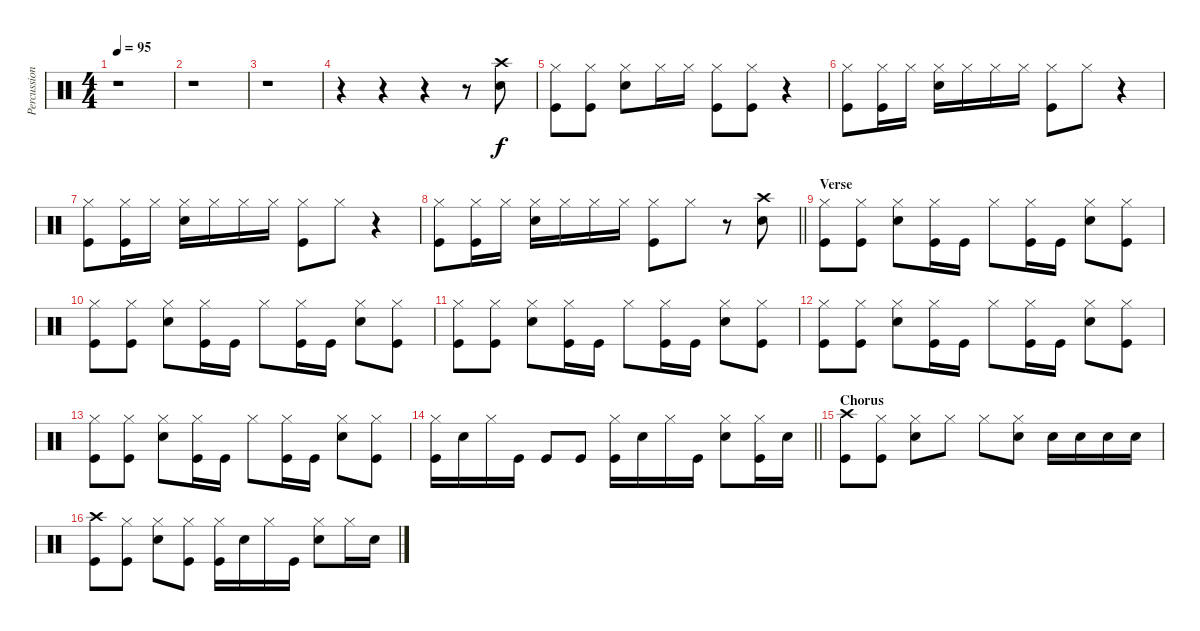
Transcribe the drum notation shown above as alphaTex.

\track ("Percussion" "Percussion") {instrument percussion}
\staff {score}
\articulation defaults
\ts (4 4)
\tempo 95
\clef neutral
\ks c
r.1{dy f} |
r.1 |
r.1 |
r.4 r.4 r.4 r.8 ("Crash high (hit)" "Snare (hit) 2").8 |
("Hi-Hat (closed)" "Kick (hit)").8 ("Hi-Hat (closed)" "Kick (hit)").8 ("Hi-Hat (closed)" "Snare (hit) 2").8 "Hi-Hat (closed)".16 "Hi-Hat (closed)".16 ("Hi-Hat (closed)" "Kick (hit)").8 ("Hi-Hat (closed)" "Kick (hit)").8 r.4 |
("Hi-Hat (closed)" "Kick (hit)").8 ("Hi-Hat (closed)" "Kick (hit)").16 "Hi-Hat (closed)".16 ("Hi-Hat (closed)" "Snare (hit) 2").16 "Hi-Hat (closed)".16 "Hi-Hat (closed)".16 "Hi-Hat (closed)".16 ("Hi-Hat (closed)" "Kick (hit)").8 "Hi-Hat (closed)".8 r.4 |
("Hi-Hat (closed)" "Kick (hit)").8 ("Hi-Hat (closed)" "Kick (hit)").16 "Hi-Hat (closed)".16 ("Hi-Hat (closed)" "Snare (hit) 2").16 "Hi-Hat (closed)".16 "Hi-Hat (closed)".16 "Hi-Hat (closed)".16 ("Hi-Hat (closed)" "Kick (hit)").8 "Hi-Hat (closed)".8 r.4 |
\barLineRight lightlight
("Hi-Hat (closed)" "Kick (hit)").8 ("Hi-Hat (closed)" "Kick (hit)").16 "Hi-Hat (closed)".16 ("Hi-Hat (closed)" "Snare (hit) 2").16 "Hi-Hat (closed)".16 "Hi-Hat (closed)".16 "Hi-Hat (closed)".16 ("Hi-Hat (closed)" "Kick (hit)").8 "Hi-Hat (closed)".8 r.8 ("Crash high (hit)" "Snare (hit) 2").8 |
\section ("" "Verse")
("Hi-Hat (closed)" "Kick (hit)").8 ("Hi-Hat (closed)" "Kick (hit)").8 ("Hi-Hat (closed)" "Snare (hit) 2").8 ("Hi-Hat (closed)" "Kick (hit)").16 "Kick (hit)".16 "Hi-Hat (closed)".8 ("Hi-Hat (closed)" "Kick (hit)").16 "Kick (hit)".16 ("Hi-Hat (closed)" "Snare (hit) 2").8 ("Hi-Hat (closed)" "Kick (hit)").8 |
("Hi-Hat (closed)" "Kick (hit)").8 ("Hi-Hat (closed)" "Kick (hit)").8 ("Hi-Hat (closed)" "Snare (hit) 2").8 ("Hi-Hat (closed)" "Kick (hit)").16 "Kick (hit)".16 "Hi-Hat (closed)".8 ("Hi-Hat (closed)" "Kick (hit)").16 "Kick (hit)".16 ("Hi-Hat (closed)" "Snare (hit) 2").8 ("Hi-Hat (closed)" "Kick (hit)").8 |
("Hi-Hat (closed)" "Kick (hit)").8 ("Hi-Hat (closed)" "Kick (hit)").8 ("Hi-Hat (closed)" "Snare (hit) 2").8 ("Hi-Hat (closed)" "Kick (hit)").16 "Kick (hit)".16 "Hi-Hat (closed)".8 ("Hi-Hat (closed)" "Kick (hit)").16 "Kick (hit)".16 ("Hi-Hat (closed)" "Snare (hit) 2").8 ("Hi-Hat (closed)" "Kick (hit)").8 |
("Hi-Hat (closed)" "Kick (hit)").8 ("Hi-Hat (closed)" "Kick (hit)").8 ("Hi-Hat (closed)" "Snare (hit) 2").8 ("Hi-Hat (closed)" "Kick (hit)").16 "Kick (hit)".16 "Hi-Hat (closed)".8 ("Hi-Hat (closed)" "Kick (hit)").16 "Kick (hit)".16 ("Hi-Hat (closed)" "Snare (hit) 2").8 ("Hi-Hat (closed)" "Kick (hit)").8 |
("Hi-Hat (closed)" "Kick (hit)").8 ("Hi-Hat (closed)" "Kick (hit)").8 ("Hi-Hat (closed)" "Snare (hit) 2").8 ("Hi-Hat (closed)" "Kick (hit)").16 "Kick (hit)".16 "Hi-Hat (closed)".8 ("Hi-Hat (closed)" "Kick (hit)").16 "Kick (hit)".16 ("Hi-Hat (closed)" "Snare (hit) 2").8 ("Hi-Hat (closed)" "Kick (hit)").8 |
\barLineRight lightlight
("Hi-Hat (closed)" "Kick (hit)").16 "Snare (hit) 2".16 "Hi-Hat (closed)".16 "Kick (hit)".16 "Kick (hit)".8 "Kick (hit)".8 ("Hi-Hat (closed)" "Kick (hit)").16 "Snare (hit) 2".16 "Hi-Hat (closed)".16 "Kick (hit)".16 ("Hi-Hat (closed)" "Snare (hit) 2").8 ("Hi-Hat (closed)" "Kick (hit)").16 "Snare (hit) 2".16 |
\section ("" "Chorus")
("Crash high (hit)" "Kick (hit)").8 ("Hi-Hat (closed)" "Kick (hit)").8 ("Hi-Hat (closed)" "Snare (hit) 2").8 "Hi-Hat (closed)".8 "Hi-Hat (closed)".8 ("Hi-Hat (closed)" "Snare (hit) 2").8 "Snare (hit) 2".16 "Snare (hit) 2".16 "Snare (hit) 2".16 "Snare (hit) 2".16 |
("Crash high (hit)" "Kick (hit)").8 ("Hi-Hat (closed)" "Kick (hit)").8 ("Hi-Hat (closed)" "Snare (hit) 2").8 ("Hi-Hat (closed)" "Kick (hit)").8 ("Hi-Hat (closed)" "Kick (hit)").16 "Snare (hit) 2".16 "Hi-Hat (closed)".16 "Kick (hit)".16 ("Hi-Hat (closed)" "Snare (hit) 2").8 "Hi-Hat (closed)".16 "Snare (hit) 2".16
